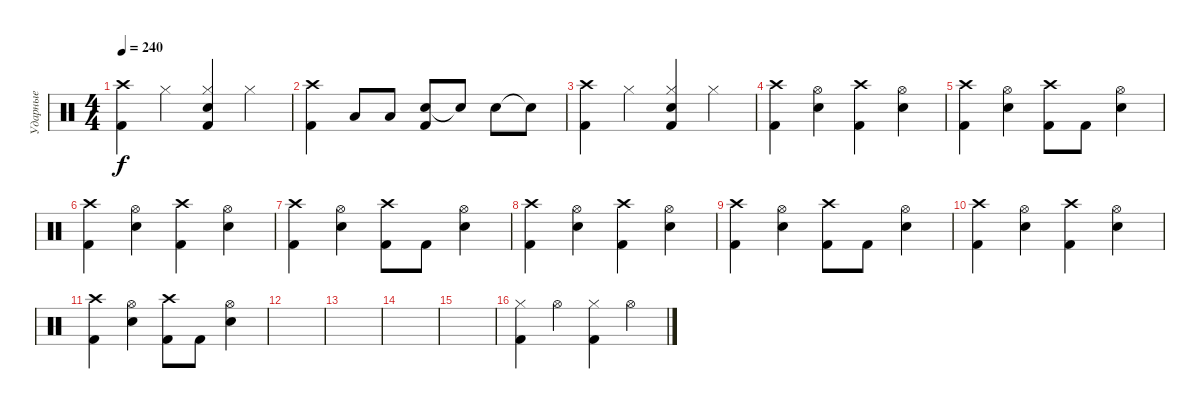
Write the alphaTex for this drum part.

\track ("Ударные" "Ударные") {instrument percussion}
\staff {score}
\articulation defaults
\ts (4 4)
\tempo 240
\clef neutral
\ks c
("Crash high (hit)" "Kick (hit) 2").4{dy f} "Hi-Hat (closed)".4 ("Hi-Hat (closed)" "Snare (hit) 2" "Kick (hit) 2").4 "Hi-Hat (closed)".4 |
("Crash high (hit)" "Kick (hit) 2").4 "Low Tom (hit)".8 "Low Tom (hit)".8 ("Snare (hit) 2" "Kick (hit) 2").8 "Snare (hit)"{t}.8 "Snare (hit) 2".8 "Snare (hit)"{t}.8 |
("Crash high (hit)" "Kick (hit) 2").4 "Hi-Hat (closed)".4 ("Hi-Hat (closed)" "Snare (hit) 2" "Kick (hit) 2").4 "Hi-Hat (closed)".4 |
("Crash high (hit)" "Kick (hit) 2").4 ("Hi-Hat (open)" "Snare (hit) 2").4 ("Crash high (hit)" "Kick (hit) 2").4 ("Hi-Hat (open)" "Snare (hit) 2").4 |
("Crash high (hit)" "Kick (hit) 2").4 ("Hi-Hat (open)" "Snare (hit) 2").4 ("Crash high (hit)" "Kick (hit) 2").8 "Kick (hit) 2".8 ("Hi-Hat (open)" "Snare (hit) 2").4 |
("Crash high (hit)" "Kick (hit) 2").4 ("Hi-Hat (open)" "Snare (hit) 2").4 ("Crash high (hit)" "Kick (hit) 2").4 ("Hi-Hat (open)" "Snare (hit) 2").4 |
("Crash high (hit)" "Kick (hit) 2").4 ("Hi-Hat (open)" "Snare (hit) 2").4 ("Crash high (hit)" "Kick (hit) 2").8 "Kick (hit) 2".8 ("Hi-Hat (open)" "Snare (hit) 2").4 |
("Crash high (hit)" "Kick (hit) 2").4 ("Hi-Hat (open)" "Snare (hit) 2").4 ("Crash high (hit)" "Kick (hit) 2").4 ("Hi-Hat (open)" "Snare (hit) 2").4 |
("Crash high (hit)" "Kick (hit) 2").4 ("Hi-Hat (open)" "Snare (hit) 2").4 ("Crash high (hit)" "Kick (hit) 2").8 "Kick (hit) 2".8 ("Hi-Hat (open)" "Snare (hit) 2").4 |
("Crash high (hit)" "Kick (hit) 2").4 ("Hi-Hat (open)" "Snare (hit) 2").4 ("Crash high (hit)" "Kick (hit) 2").4 ("Hi-Hat (open)" "Snare (hit) 2").4 |
("Crash high (hit)" "Kick (hit) 2").4 ("Hi-Hat (open)" "Snare (hit) 2").4 ("Crash high (hit)" "Kick (hit) 2").8 "Kick (hit) 2".8 ("Hi-Hat (open)" "Snare (hit) 2").4 |
|
|
|
|
("Hi-Hat (closed)" "Kick (hit) 2").4{volume 7} "Hi-Hat (open)".4 ("Hi-Hat (closed)" "Kick (hit) 2").4 "Hi-Hat (open)".4
